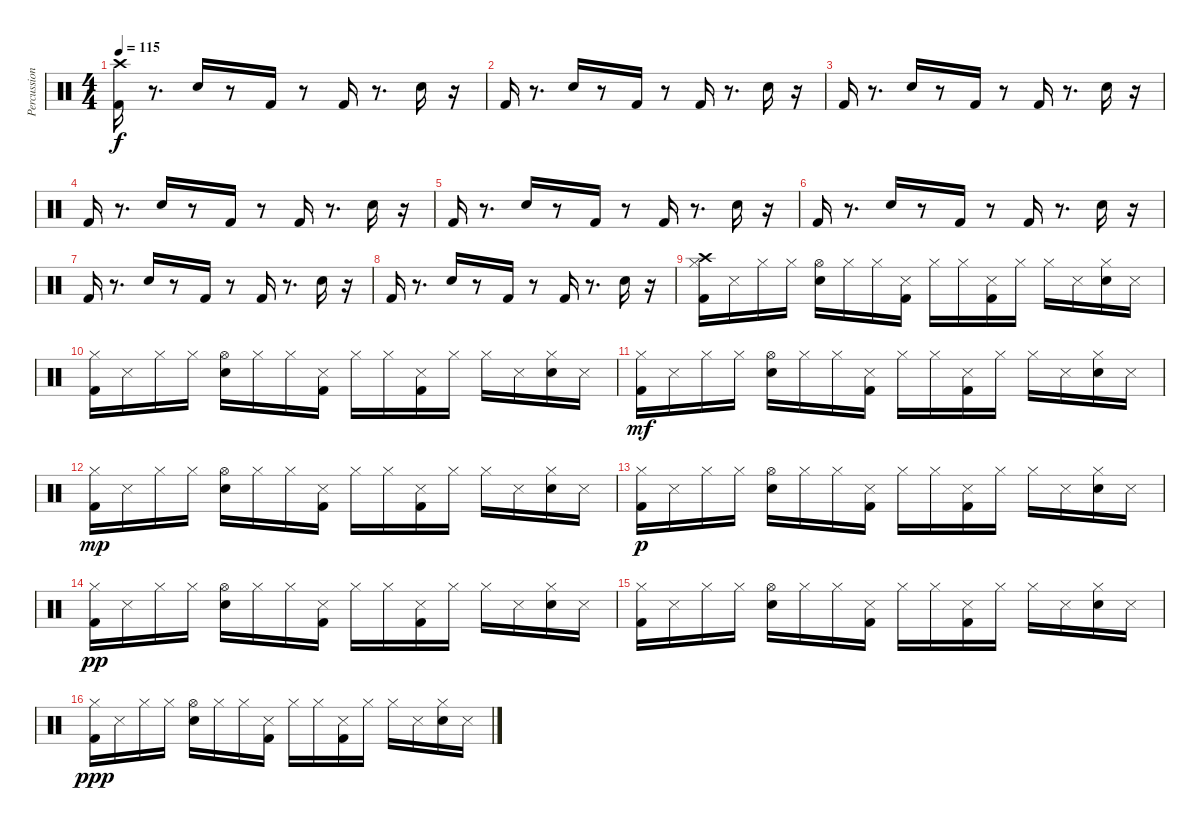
\track ("Percussion (TR808 Kit)" "Percussion") {instrument percussion}
\staff {score}
\articulation defaults
\ts (4 4)
\tempo 115
\clef neutral
\ks c
("Kick (hit) 2" "Crash high (hit)").16{dy f} r.8{d} "Snare (hit) 2".16 r.8 "Kick (hit) 2".16 r.8 "Kick (hit) 2".16 r.8{d} "Snare (hit) 2".16 r.16 |
"Kick (hit) 2".16 r.8{d} "Snare (hit) 2".16 r.8 "Kick (hit) 2".16 r.8 "Kick (hit) 2".16 r.8{d} "Snare (hit) 2".16 r.16 |
"Kick (hit) 2".16 r.8{d} "Snare (hit) 2".16 r.8 "Kick (hit) 2".16 r.8 "Kick (hit) 2".16 r.8{d} "Snare (hit) 2".16 r.16 |
"Kick (hit) 2".16 r.8{d} "Snare (hit) 2".16 r.8 "Kick (hit) 2".16 r.8 "Kick (hit) 2".16 r.8{d} "Snare (hit) 2".16 r.16 |
"Kick (hit) 2".16 r.8{d} "Snare (hit) 2".16 r.8 "Kick (hit) 2".16 r.8 "Kick (hit) 2".16 r.8{d} "Snare (hit) 2".16 r.16 |
"Kick (hit) 2".16 r.8{d} "Snare (hit) 2".16 r.8 "Kick (hit) 2".16 r.8 "Kick (hit) 2".16 r.8{d} "Snare (hit) 2".16 r.16 |
"Kick (hit) 2".16 r.8{d} "Snare (hit) 2".16 r.8 "Kick (hit) 2".16 r.8 "Kick (hit) 2".16 r.8{d} "Snare (hit) 2".16 r.16 |
"Kick (hit) 2".16 r.8{d} "Snare (hit) 2".16 r.8 "Kick (hit) 2".16 r.8 "Kick (hit) 2".16 r.8{d} "Snare (hit) 2".16 r.16 |
("Hi-Hat (closed)" "Kick (hit) 2" "Crash high (hit)").16 "Snare (side stick) 3".16 "Hi-Hat (closed)".16 "Hi-Hat (closed)".16 ("Hi-Hat (open)" "Snare (hit) 2").16 "Hi-Hat (closed)".16 "Hi-Hat (closed)".16 ("Snare (side stick) 3" "Kick (hit) 2").16 "Hi-Hat (closed)".16 "Hi-Hat (closed)".16 ("Snare (side stick) 3" "Kick (hit) 2").16 "Hi-Hat (closed)".16 "Hi-Hat (closed)".16 "Snare (side stick) 3".16 ("Hi-Hat (closed)" "Snare (hit) 2").16 "Snare (side stick) 3".16 |
("Hi-Hat (closed)" "Kick (hit) 2").16 "Snare (side stick) 3".16 "Hi-Hat (closed)".16 "Hi-Hat (closed)".16 ("Hi-Hat (open)" "Snare (hit) 2").16 "Hi-Hat (closed)".16 "Hi-Hat (closed)".16 ("Snare (side stick) 3" "Kick (hit) 2").16 "Hi-Hat (closed)".16 "Hi-Hat (closed)".16 ("Snare (side stick) 3" "Kick (hit) 2").16 "Hi-Hat (closed)".16 "Hi-Hat (closed)".16 "Snare (side stick) 3".16 ("Hi-Hat (closed)" "Snare (hit) 2").16 "Snare (side stick) 3".16 |
("Hi-Hat (closed)" "Kick (hit) 2").16{dy mf} "Snare (side stick) 3".16 "Hi-Hat (closed)".16 "Hi-Hat (closed)".16 ("Hi-Hat (open)" "Snare (hit) 2").16 "Hi-Hat (closed)".16 "Hi-Hat (closed)".16 ("Snare (side stick) 3" "Kick (hit) 2").16 "Hi-Hat (closed)".16 "Hi-Hat (closed)".16 ("Snare (side stick) 3" "Kick (hit) 2").16 "Hi-Hat (closed)".16 "Hi-Hat (closed)".16 "Snare (side stick) 3".16 ("Hi-Hat (closed)" "Snare (hit) 2").16 "Snare (side stick) 3".16 |
("Hi-Hat (closed)" "Kick (hit) 2").16{dy mp} "Snare (side stick) 3".16 "Hi-Hat (closed)".16 "Hi-Hat (closed)".16 ("Hi-Hat (open)" "Snare (hit) 2").16 "Hi-Hat (closed)".16 "Hi-Hat (closed)".16 ("Snare (side stick) 3" "Kick (hit) 2").16 "Hi-Hat (closed)".16 "Hi-Hat (closed)".16 ("Snare (side stick) 3" "Kick (hit) 2").16 "Hi-Hat (closed)".16 "Hi-Hat (closed)".16 "Snare (side stick) 3".16 ("Hi-Hat (closed)" "Snare (hit) 2").16 "Snare (side stick) 3".16 |
("Hi-Hat (closed)" "Kick (hit) 2").16{dy p} "Snare (side stick) 3".16 "Hi-Hat (closed)".16 "Hi-Hat (closed)".16 ("Hi-Hat (open)" "Snare (hit) 2").16 "Hi-Hat (closed)".16 "Hi-Hat (closed)".16 ("Snare (side stick) 3" "Kick (hit) 2").16 "Hi-Hat (closed)".16 "Hi-Hat (closed)".16 ("Snare (side stick) 3" "Kick (hit) 2").16 "Hi-Hat (closed)".16 "Hi-Hat (closed)".16 "Snare (side stick) 3".16 ("Hi-Hat (closed)" "Snare (hit) 2").16 "Snare (side stick) 3".16 |
("Hi-Hat (closed)" "Kick (hit) 2").16{dy pp} "Snare (side stick) 3".16 "Hi-Hat (closed)".16 "Hi-Hat (closed)".16 ("Hi-Hat (open)" "Snare (hit) 2").16 "Hi-Hat (closed)".16 "Hi-Hat (closed)".16 ("Snare (side stick) 3" "Kick (hit) 2").16 "Hi-Hat (closed)".16 "Hi-Hat (closed)".16 ("Snare (side stick) 3" "Kick (hit) 2").16 "Hi-Hat (closed)".16 "Hi-Hat (closed)".16 "Snare (side stick) 3".16 ("Hi-Hat (closed)" "Snare (hit) 2").16 "Snare (side stick) 3".16 |
("Hi-Hat (closed)" "Kick (hit) 2").16 "Snare (side stick) 3".16 "Hi-Hat (closed)".16 "Hi-Hat (closed)".16 ("Hi-Hat (open)" "Snare (hit) 2").16 "Hi-Hat (closed)".16 "Hi-Hat (closed)".16 ("Snare (side stick) 3" "Kick (hit) 2").16 "Hi-Hat (closed)".16 "Hi-Hat (closed)".16 ("Snare (side stick) 3" "Kick (hit) 2").16 "Hi-Hat (closed)".16 "Hi-Hat (closed)".16 "Snare (side stick) 3".16 ("Hi-Hat (closed)" "Snare (hit) 2").16 "Snare (side stick) 3".16 |
("Hi-Hat (closed)" "Kick (hit) 2").16{dy ppp} "Snare (side stick) 3".16 "Hi-Hat (closed)".16 "Hi-Hat (closed)".16 ("Hi-Hat (open)" "Snare (hit) 2").16 "Hi-Hat (closed)".16 "Hi-Hat (closed)".16 ("Snare (side stick) 3" "Kick (hit) 2").16 "Hi-Hat (closed)".16 "Hi-Hat (closed)".16 ("Snare (side stick) 3" "Kick (hit) 2").16 "Hi-Hat (closed)".16 "Hi-Hat (closed)".16 "Snare (side stick) 3".16 ("Hi-Hat (closed)" "Snare (hit) 2").16 "Snare (side stick) 3".16
